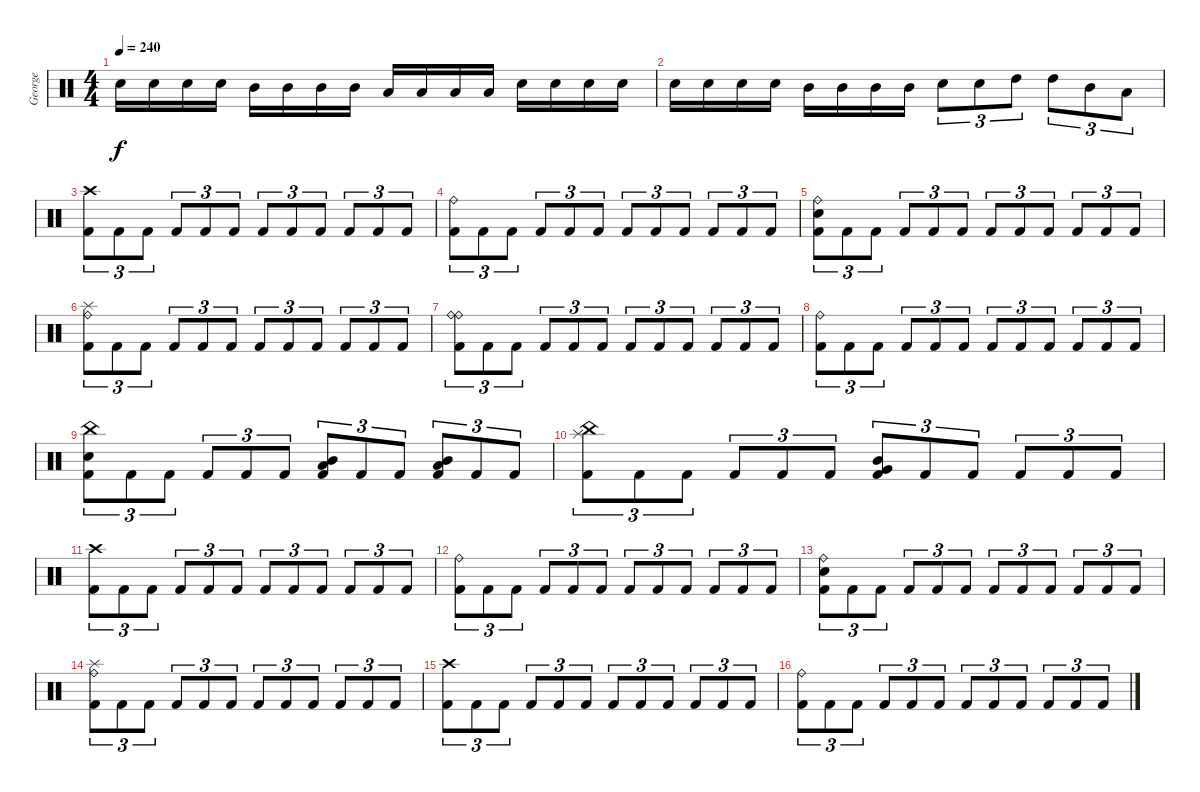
\track ("George" "George") {instrument percussion}
\staff {score}
\articulation defaults
\ts (4 4)
\tempo 240
\clef neutral
\ks c "Snare (hit) 2".16{dy f} "Snare (hit) 2".16 "Snare (hit) 2".16 "Snare (hit) 2".16 "Mid Tom (hit)".16 "Mid Tom (hit)".16 "Mid Tom (hit)".16 "Mid Tom (hit)".16 "Low Tom (hit)".16 "Low Tom (hit)".16 "Low Tom (hit)".16 "Low Tom (hit)".16 "Snare (hit) 2".16 "Snare (hit) 2".16 "Snare (hit) 2".16 "Snare (hit) 2".16
|
"Snare (hit) 2".16 "Snare (hit) 2".16 "Snare (hit) 2".16 "Snare (hit) 2".16 "Mid Tom (hit)".16 "Mid Tom (hit)".16 "Mid Tom (hit)".16 "Mid Tom (hit)".16 "Snare (hit) 2".8{tu (3 2)} "Snare (hit) 2".8{tu (3 2)} "High Tom (hit)".8{tu (3 2)} "High Tom (hit)".8{tu (3 2)} "Mid Tom (hit)".8{tu (3 2)} "Low Tom (hit)".8{tu (3 2)} |
("Crash high (hit)" "Kick (hit) 2").8{tu (3 2)} "Kick (hit) 2".8{tu (3 2)} "Kick (hit) 2".8{tu (3 2)} "Kick (hit) 2".8{tu (3 2)} "Kick (hit) 2".8{tu (3 2)} "Kick (hit) 2".8{tu (3 2)} "Kick (hit) 2".8{tu (3 2)} "Kick (hit) 2".8{tu (3 2)} "Kick (hit) 2".8{tu (3 2)} "Kick (hit) 2".8{tu (3 2)} "Kick (hit) 2".8{tu (3 2)} "Kick (hit) 2".8{tu (3 2)} |
("Ride (bell)" "Kick (hit) 2").8{tu (3 2)} "Kick (hit) 2".8{tu (3 2)} "Kick (hit) 2".8{tu (3 2)} "Kick (hit) 2".8{tu (3 2)} "Kick (hit) 2".8{tu (3 2)} "Kick (hit) 2".8{tu (3 2)} "Kick (hit) 2".8{tu (3 2)} "Kick (hit) 2".8{tu (3 2)} "Kick (hit) 2".8{tu (3 2)} "Kick (hit) 2".8{tu (3 2)} "Kick (hit) 2".8{tu (3 2)} "Kick (hit) 2".8{tu (3 2)} |
("Ride (bell)" "Snare (hit) 2" "Kick (hit) 2").8{tu (3 2)} "Kick (hit) 2".8{tu (3 2)} "Kick (hit) 2".8{tu (3 2)} "Kick (hit) 2".8{tu (3 2)} "Kick (hit) 2".8{tu (3 2)} "Kick (hit) 2".8{tu (3 2)} "Kick (hit) 2".8{tu (3 2)} "Kick (hit) 2".8{tu (3 2)} "Kick (hit) 2".8{tu (3 2)} "Kick (hit) 2".8{tu (3 2)} "Kick (hit) 2".8{tu (3 2)} "Kick (hit) 2".8{tu (3 2)} |
("Ride (bell)" "Splash (hit)" "Kick (hit) 2").8{tu (3 2)} "Kick (hit) 2".8{tu (3 2)} "Kick (hit) 2".8{tu (3 2)} "Kick (hit) 2".8{tu (3 2)} "Kick (hit) 2".8{tu (3 2)} "Kick (hit) 2".8{tu (3 2)} "Kick (hit) 2".8{tu (3 2)} "Kick (hit) 2".8{tu (3 2)} "Kick (hit) 2".8{tu (3 2)} "Kick (hit) 2".8{tu (3 2)} "Kick (hit) 2".8{tu (3 2)} "Kick (hit) 2".8{tu (3 2)} |
("Ride (bell)" "Ride (bell)" "Kick (hit) 2").8{tu (3 2)} "Kick (hit) 2".8{tu (3 2)} "Kick (hit) 2".8{tu (3 2)} "Kick (hit) 2".8{tu (3 2)} "Kick (hit) 2".8{tu (3 2)} "Kick (hit) 2".8{tu (3 2)} "Kick (hit) 2".8{tu (3 2)} "Kick (hit) 2".8{tu (3 2)} "Kick (hit) 2".8{tu (3 2)} "Kick (hit) 2".8{tu (3 2)} "Kick (hit) 2".8{tu (3 2)} "Kick (hit) 2".8{tu (3 2)} |
("Ride (bell)" "Kick (hit) 2").8{tu (3 2)} "Kick (hit) 2".8{tu (3 2)} "Kick (hit) 2".8{tu (3 2)} "Kick (hit) 2".8{tu (3 2)} "Kick (hit) 2".8{tu (3 2)} "Kick (hit) 2".8{tu (3 2)} "Kick (hit) 2".8{tu (3 2)} "Kick (hit) 2".8{tu (3 2)} "Kick (hit) 2".8{tu (3 2)} "Kick (hit) 2".8{tu (3 2)} "Kick (hit) 2".8{tu (3 2)} "Kick (hit) 2".8{tu (3 2)} |
("China (hit)" "Snare (hit) 2" "Kick (hit) 2").8{tu (3 2)} "Kick (hit) 2".8{tu (3 2)} "Kick (hit) 2".8{tu (3 2)} "Kick (hit) 2".8{tu (3 2)} "Kick (hit) 2".8{tu (3 2)} "Kick (hit) 2".8{tu (3 2)} ("Low Tom (hit)" "Mid Tom (hit)" "Kick (hit) 2").8{tu (3 2)} "Kick (hit) 2".8{tu (3 2)} "Kick (hit) 2".8{tu (3 2)} ("Low Tom (hit)" "Mid Tom (hit)" "Kick (hit) 2").8{tu (3 2)} "Kick (hit) 2".8{tu (3 2)} "Kick (hit) 2".8{tu (3 2)} |
("China (hit)" "Splash (hit)" "Kick (hit) 2").8{tu (3 2)} "Kick (hit) 2".8{tu (3 2)} "Kick (hit) 2".8{tu (3 2)} "Kick (hit) 2".8{tu (3 2)} "Kick (hit) 2".8{tu (3 2)} "Kick (hit) 2".8{tu (3 2)} ("Mid Tom (hit)" "Very Low Tom (hit)" "Kick (hit) 2").8{tu (3 2)} "Kick (hit) 2".8{tu (3 2)} "Kick (hit) 2".8{tu (3 2)} "Kick (hit) 2".8{tu (3 2)} "Kick (hit) 2".8{tu (3 2)} "Kick (hit) 2".8{tu (3 2)} |
("Crash high (hit)" "Kick (hit) 2").8{tu (3 2)} "Kick (hit) 2".8{tu (3 2)} "Kick (hit) 2".8{tu (3 2)} "Kick (hit) 2".8{tu (3 2)} "Kick (hit) 2".8{tu (3 2)} "Kick (hit) 2".8{tu (3 2)} "Kick (hit) 2".8{tu (3 2)} "Kick (hit) 2".8{tu (3 2)} "Kick (hit) 2".8{tu (3 2)} "Kick (hit) 2".8{tu (3 2)} "Kick (hit) 2".8{tu (3 2)} "Kick (hit) 2".8{tu (3 2)} |
("Ride (bell)" "Kick (hit) 2").8{tu (3 2)} "Kick (hit) 2".8{tu (3 2)} "Kick (hit) 2".8{tu (3 2)} "Kick (hit) 2".8{tu (3 2)} "Kick (hit) 2".8{tu (3 2)} "Kick (hit) 2".8{tu (3 2)} "Kick (hit) 2".8{tu (3 2)} "Kick (hit) 2".8{tu (3 2)} "Kick (hit) 2".8{tu (3 2)} "Kick (hit) 2".8{tu (3 2)} "Kick (hit) 2".8{tu (3 2)} "Kick (hit) 2".8{tu (3 2)} |
("Ride (bell)" "Snare (hit) 2" "Kick (hit) 2").8{tu (3 2)} "Kick (hit) 2".8{tu (3 2)} "Kick (hit) 2".8{tu (3 2)} "Kick (hit) 2".8{tu (3 2)} "Kick (hit) 2".8{tu (3 2)} "Kick (hit) 2".8{tu (3 2)} "Kick (hit) 2".8{tu (3 2)} "Kick (hit) 2".8{tu (3 2)} "Kick (hit) 2".8{tu (3 2)} "Kick (hit) 2".8{tu (3 2)} "Kick (hit) 2".8{tu (3 2)} "Kick (hit) 2".8{tu (3 2)} |
("Ride (bell)" "Splash (hit)" "Kick (hit) 2").8{tu (3 2)} "Kick (hit) 2".8{tu (3 2)} "Kick (hit) 2".8{tu (3 2)} "Kick (hit) 2".8{tu (3 2)} "Kick (hit) 2".8{tu (3 2)} "Kick (hit) 2".8{tu (3 2)} "Kick (hit) 2".8{tu (3 2)} "Kick (hit) 2".8{tu (3 2)} "Kick (hit) 2".8{tu (3 2)} "Kick (hit) 2".8{tu (3 2)} "Kick (hit) 2".8{tu (3 2)} "Kick (hit) 2".8{tu (3 2)} |
("Crash high (hit)" "Kick (hit) 2").8{tu (3 2)} "Kick (hit) 2".8{tu (3 2)} "Kick (hit) 2".8{tu (3 2)} "Kick (hit) 2".8{tu (3 2)} "Kick (hit) 2".8{tu (3 2)} "Kick (hit) 2".8{tu (3 2)} "Kick (hit) 2".8{tu (3 2)} "Kick (hit) 2".8{tu (3 2)} "Kick (hit) 2".8{tu (3 2)} "Kick (hit) 2".8{tu (3 2)} "Kick (hit) 2".8{tu (3 2)} "Kick (hit) 2".8{tu (3 2)} |
("Ride (bell)" "Kick (hit) 2").8{tu (3 2)} "Kick (hit) 2".8{tu (3 2)} "Kick (hit) 2".8{tu (3 2)} "Kick (hit) 2".8{tu (3 2)} "Kick (hit) 2".8{tu (3 2)} "Kick (hit) 2".8{tu (3 2)} "Kick (hit) 2".8{tu (3 2)} "Kick (hit) 2".8{tu (3 2)} "Kick (hit) 2".8{tu (3 2)} "Kick (hit) 2".8{tu (3 2)} "Kick (hit) 2".8{tu (3 2)} "Kick (hit) 2".8{tu (3 2)}
